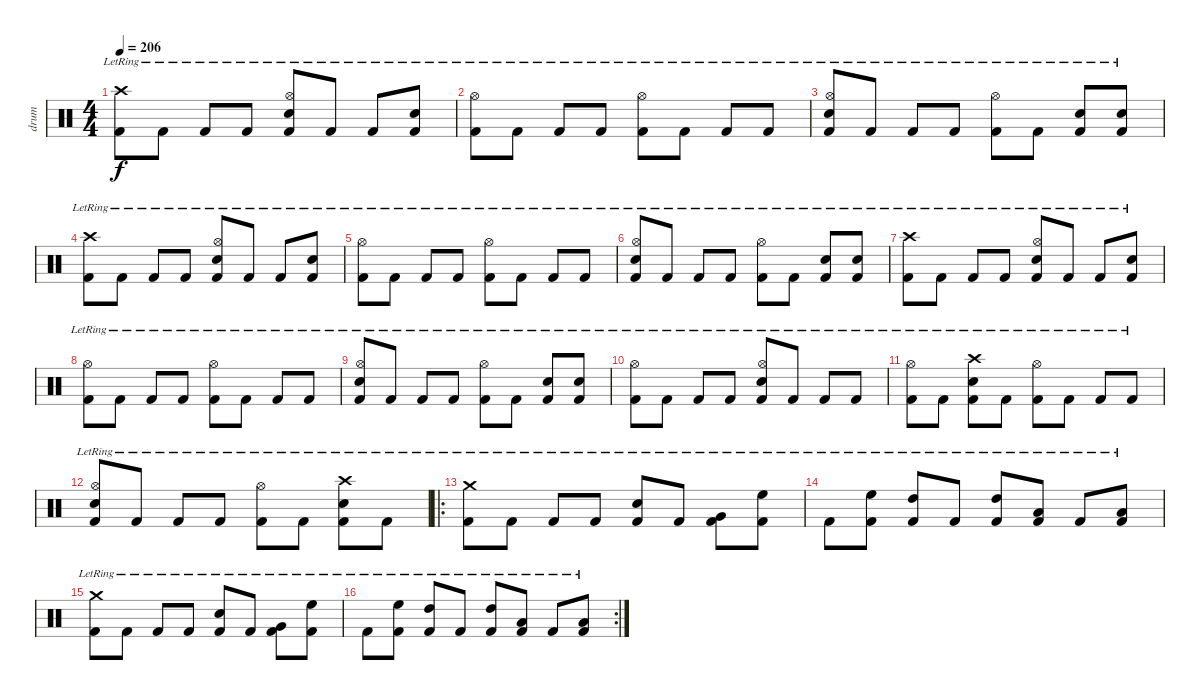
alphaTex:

\track ("drum" "drum") {instrument percussion}
\staff {score}
\articulation defaults
\ts (4 4)
\tempo 206
\clef neutral
\ks c
("Crash high (hit)"{lr} "Kick (hit) 2"{lr}).8{dy f} "Kick (hit) 2"{lr}.8 "Kick (hit) 2"{lr}.8 "Kick (hit) 2"{lr}.8 ("Hi-Hat (open)"{lr} "Electric Snare (hit)"{lr} "Kick (hit) 2"{lr}).8 "Kick (hit) 2"{lr}.8 "Kick (hit) 2"{lr}.8 ("Electric Snare (hit)"{lr} "Kick (hit) 2"{lr}).8 |
("Hi-Hat (open)"{lr} "Kick (hit) 2"{lr}).8 "Kick (hit) 2"{lr}.8 "Kick (hit) 2"{lr}.8 "Kick (hit) 2"{lr}.8 ("Hi-Hat (open)"{lr} "Kick (hit) 2"{lr}).8 "Kick (hit) 2"{lr}.8 "Kick (hit) 2"{lr}.8 "Kick (hit) 2"{lr}.8 |
("Hi-Hat (open)"{lr} "Electric Snare (hit)"{lr} "Kick (hit) 2"{lr}).8 "Kick (hit) 2"{lr}.8 "Kick (hit) 2"{lr}.8 "Kick (hit) 2"{lr}.8 ("Hi-Hat (open)"{lr} "Kick (hit) 2"{lr}).8 "Kick (hit) 2"{lr}.8 ("Electric Snare (hit)"{lr} "Kick (hit) 2"{lr}).8 ("Electric Snare (hit)"{lr} "Kick (hit) 2"{lr}).8 |
("Crash high (hit)"{lr} "Kick (hit) 2"{lr}).8 "Kick (hit) 2"{lr}.8 "Kick (hit) 2"{lr}.8 "Kick (hit) 2"{lr}.8 ("Hi-Hat (open)"{lr} "Electric Snare (hit)"{lr} "Kick (hit) 2"{lr}).8 "Kick (hit) 2"{lr}.8 "Kick (hit) 2"{lr}.8 ("Electric Snare (hit)"{lr} "Kick (hit) 2"{lr}).8 |
("Hi-Hat (open)"{lr} "Kick (hit) 2"{lr}).8 "Kick (hit) 2"{lr}.8 "Kick (hit) 2"{lr}.8 "Kick (hit) 2"{lr}.8 ("Hi-Hat (open)"{lr} "Kick (hit) 2"{lr}).8 "Kick (hit) 2"{lr}.8 "Kick (hit) 2"{lr}.8 "Kick (hit) 2"{lr}.8 |
("Hi-Hat (open)"{lr} "Electric Snare (hit)"{lr} "Kick (hit) 2"{lr}).8 "Kick (hit) 2"{lr}.8 "Kick (hit) 2"{lr}.8 "Kick (hit) 2"{lr}.8 ("Hi-Hat (open)"{lr} "Kick (hit) 2"{lr}).8 "Kick (hit) 2"{lr}.8 ("Electric Snare (hit)"{lr} "Kick (hit) 2"{lr}).8 ("Electric Snare (hit)"{lr} "Kick (hit) 2"{lr}).8 |
("Crash high (hit)"{lr} "Kick (hit) 2"{lr}).8 "Kick (hit) 2"{lr}.8 "Kick (hit) 2"{lr}.8 "Kick (hit) 2"{lr}.8 ("Hi-Hat (open)"{lr} "Electric Snare (hit)"{lr} "Kick (hit) 2"{lr}).8 "Kick (hit) 2"{lr}.8 "Kick (hit) 2"{lr}.8 ("Electric Snare (hit)"{lr} "Kick (hit) 2"{lr}).8 |
("Hi-Hat (open)"{lr} "Kick (hit) 2"{lr}).8 "Kick (hit) 2"{lr}.8 "Kick (hit) 2"{lr}.8 "Kick (hit) 2"{lr}.8 ("Hi-Hat (open)"{lr} "Kick (hit) 2"{lr}).8 "Kick (hit) 2"{lr}.8 "Kick (hit) 2"{lr}.8 "Kick (hit) 2"{lr}.8 |
("Hi-Hat (open)"{lr} "Electric Snare (hit)"{lr} "Kick (hit) 2"{lr}).8 "Kick (hit) 2"{lr}.8 "Kick (hit) 2"{lr}.8 "Kick (hit) 2"{lr}.8 ("Hi-Hat (open)"{lr} "Kick (hit) 2"{lr}).8 "Kick (hit) 2"{lr}.8 ("Electric Snare (hit)"{lr} "Kick (hit) 2"{lr}).8 ("Electric Snare (hit)"{lr} "Kick (hit) 2"{lr}).8 |
("Hi-Hat (open)"{lr} "Kick (hit) 2"{lr}).8 "Kick (hit) 2"{lr}.8 "Kick (hit) 2"{lr}.8 "Kick (hit) 2"{lr}.8 ("Hi-Hat (open)"{lr} "Electric Snare (hit)"{lr} "Kick (hit) 2"{lr}).8 "Kick (hit) 2"{lr}.8 "Kick (hit) 2"{lr}.8 "Kick (hit) 2"{lr}.8 |
("Hi-Hat (open)"{lr} "Kick (hit) 2"{lr}).8 "Kick (hit) 2"{lr}.8 ("Crash high (hit)"{lr} "Electric Snare (hit)"{lr} "Kick (hit) 2"{lr}).8 "Kick (hit) 2"{lr}.8 ("Hi-Hat (open)"{lr} "Kick (hit) 2"{lr}).8 "Kick (hit) 2"{lr}.8 "Kick (hit) 2"{lr}.8 "Kick (hit) 2"{lr}.8 |
("Hi-Hat (open)"{lr} "Electric Snare (hit)"{lr} "Kick (hit) 2"{lr}).8 "Kick (hit) 2"{lr}.8 "Kick (hit) 2"{lr}.8 "Kick (hit) 2"{lr}.8 ("Hi-Hat (open)"{lr} "Kick (hit) 2"{lr}).8 "Kick (hit) 2"{lr}.8 ("Crash high (hit)"{lr} "Electric Snare (hit)"{lr} "Kick (hit) 2"{lr}).8 "Kick (hit) 2"{lr}.8 |
\ro
("Crash medium (hit)"{lr} "Kick (hit) 2"{lr}).8 "Kick (hit) 2"{lr}.8 "Kick (hit) 2"{lr}.8 "Kick (hit) 2"{lr}.8 ("Electric Snare (hit)"{lr} "Kick (hit) 2"{lr}).8 "Kick (hit) 2"{lr}.8 ("Very Low Tom (hit)"{lr} "Kick (hit) 2"{lr}).8 ("High Floor Tom (hit)"{lr} "Kick (hit) 2"{lr}).8 |
"Kick (hit) 2"{lr}.8 ("High Floor Tom (hit)"{lr} "Kick (hit) 2"{lr}).8 ("High Tom (hit)"{lr} "Kick (hit) 2"{lr}).8 "Kick (hit) 2"{lr}.8 ("High Tom (hit)"{lr} "Kick (hit) 2"{lr}).8 ("Low Tom (hit)"{lr} "Kick (hit) 2"{lr}).8 "Kick (hit) 2"{lr}.8 ("Low Tom (hit)"{lr} "Kick (hit) 2"{lr}).8 |
("Crash medium (hit)"{lr} "Kick (hit) 2"{lr}).8 "Kick (hit) 2"{lr}.8 "Kick (hit) 2"{lr}.8 "Kick (hit) 2"{lr}.8 ("Electric Snare (hit)"{lr} "Kick (hit) 2"{lr}).8 "Kick (hit) 2"{lr}.8 ("Very Low Tom (hit)"{lr} "Kick (hit) 2"{lr}).8 ("High Floor Tom (hit)"{lr} "Kick (hit) 2"{lr}).8 |
\rc 2 "Kick (hit) 2"{lr}.8
("High Floor Tom (hit)"{lr} "Kick (hit) 2"{lr}).8 ("High Tom (hit)"{lr} "Kick (hit) 2"{lr}).8 "Kick (hit) 2"{lr}.8 ("High Tom (hit)"{lr} "Kick (hit) 2"{lr}).8 ("Low Tom (hit)"{lr} "Kick (hit) 2"{lr}).8 "Kick (hit) 2"{lr}.8 ("Low Tom (hit)"{lr} "Kick (hit) 2"{lr}).8
